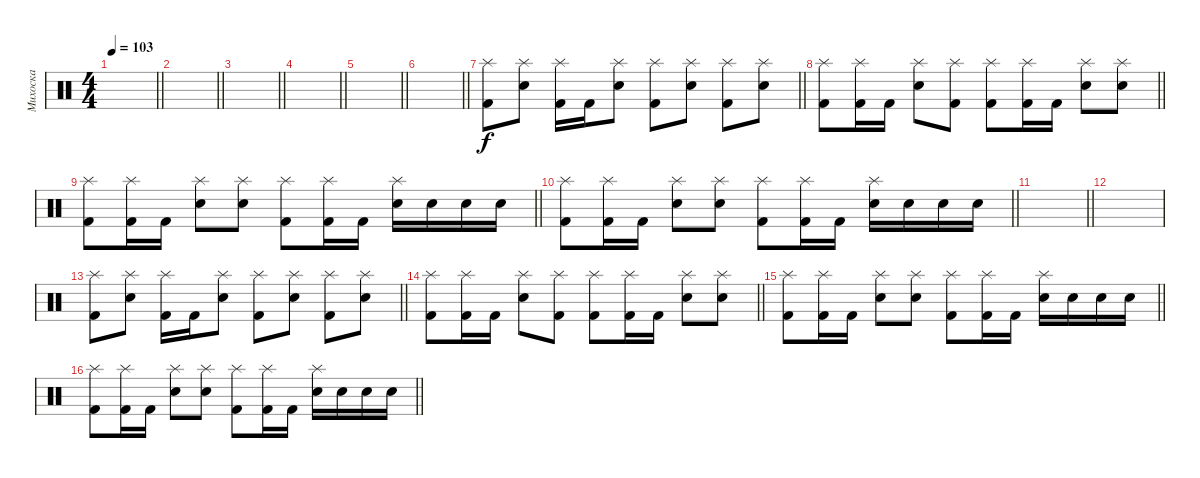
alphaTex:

\track ("Михоска" "Михоска") {instrument percussion}
\staff {score}
\articulation defaults
\ts (4 4)
\tempo 103
\clef neutral
\barLineRight lightlight
\ks c
|
\barLineRight lightlight
|
\barLineRight lightlight
|
\barLineRight lightlight
|
\barLineRight lightlight
|
\barLineRight lightlight
|
\barLineRight lightlight
("Splash (hit)" "Kick (hit) 2").8 ("Splash (hit)" "Snare (hit) 2").8 ("Splash (hit)" "Kick (hit) 2").16 "Kick (hit) 2".16 ("Splash (hit)" "Snare (hit) 2").8 ("Splash (hit)" "Kick (hit) 2").8 ("Splash (hit)" "Snare (hit) 2").8 ("Splash (hit)" "Kick (hit) 2").8 ("Splash (hit)" "Snare (hit) 2").8 |
\barLineRight lightlight
("Splash (hit)" "Kick (hit) 2").8 ("Splash (hit)" "Kick (hit) 2").16 "Kick (hit) 2".16 ("Splash (hit)" "Snare (hit) 2").8 ("Splash (hit)" "Kick (hit) 2").8 ("Splash (hit)" "Kick (hit) 2").8 ("Splash (hit)" "Kick (hit) 2").16 "Kick (hit) 2".16 ("Splash (hit)" "Snare (hit) 2").8 ("Splash (hit)" "Snare (hit) 2").8 |
\barLineRight lightlight
("Splash (hit)" "Kick (hit) 2").8 ("Splash (hit)" "Kick (hit) 2").16 "Kick (hit) 2".16 ("Splash (hit)" "Snare (hit) 2").8 ("Splash (hit)" "Snare (hit) 2").8 ("Splash (hit)" "Kick (hit) 2").8 ("Splash (hit)" "Kick (hit) 2").16 "Kick (hit) 2".16 ("Splash (hit)" "Snare (hit) 2").16 "Snare (hit) 2".16 "Snare (hit) 2".16 "Snare (hit) 2".16 |
\barLineRight lightlight
("Splash (hit)" "Kick (hit) 2").8 ("Splash (hit)" "Kick (hit) 2").16 "Kick (hit) 2".16 ("Splash (hit)" "Snare (hit) 2").8 ("Splash (hit)" "Snare (hit) 2").8 ("Splash (hit)" "Kick (hit) 2").8 ("Splash (hit)" "Kick (hit) 2").16 "Kick (hit) 2".16 ("Splash (hit)" "Snare (hit) 2").16 "Snare (hit) 2".16 "Snare (hit) 2".16 "Snare (hit) 2".16 |
\barLineRight lightlight
|
|
\barLineRight lightlight
("Splash (hit)" "Kick (hit) 2").8 ("Splash (hit)" "Snare (hit) 2").8 ("Splash (hit)" "Kick (hit) 2").16 "Kick (hit) 2".16 ("Splash (hit)" "Snare (hit) 2").8 ("Splash (hit)" "Kick (hit) 2").8 ("Splash (hit)" "Snare (hit) 2").8 ("Splash (hit)" "Kick (hit) 2").8 ("Splash (hit)" "Snare (hit) 2").8 |
\barLineRight lightlight
("Splash (hit)" "Kick (hit) 2").8 ("Splash (hit)" "Kick (hit) 2").16 "Kick (hit) 2".16 ("Splash (hit)" "Snare (hit) 2").8 ("Splash (hit)" "Kick (hit) 2").8 ("Splash (hit)" "Kick (hit) 2").8 ("Splash (hit)" "Kick (hit) 2").16 "Kick (hit) 2".16 ("Splash (hit)" "Snare (hit) 2").8 ("Splash (hit)" "Snare (hit) 2").8 |
\barLineRight lightlight
("Splash (hit)" "Kick (hit) 2").8 ("Splash (hit)" "Kick (hit) 2").16 "Kick (hit) 2".16 ("Splash (hit)" "Snare (hit) 2").8 ("Splash (hit)" "Snare (hit) 2").8 ("Splash (hit)" "Kick (hit) 2").8 ("Splash (hit)" "Kick (hit) 2").16 "Kick (hit) 2".16 ("Splash (hit)" "Snare (hit) 2").16 "Snare (hit) 2".16 "Snare (hit) 2".16 "Snare (hit) 2".16 |
\barLineRight lightlight
("Splash (hit)" "Kick (hit) 2").8 ("Splash (hit)" "Kick (hit) 2").16 "Kick (hit) 2".16 ("Splash (hit)" "Snare (hit) 2").8 ("Splash (hit)" "Snare (hit) 2").8 ("Splash (hit)" "Kick (hit) 2").8 ("Splash (hit)" "Kick (hit) 2").16 "Kick (hit) 2".16 ("Splash (hit)" "Snare (hit) 2").16 "Snare (hit) 2".16 "Snare (hit) 2".16 "Snare (hit) 2".16
